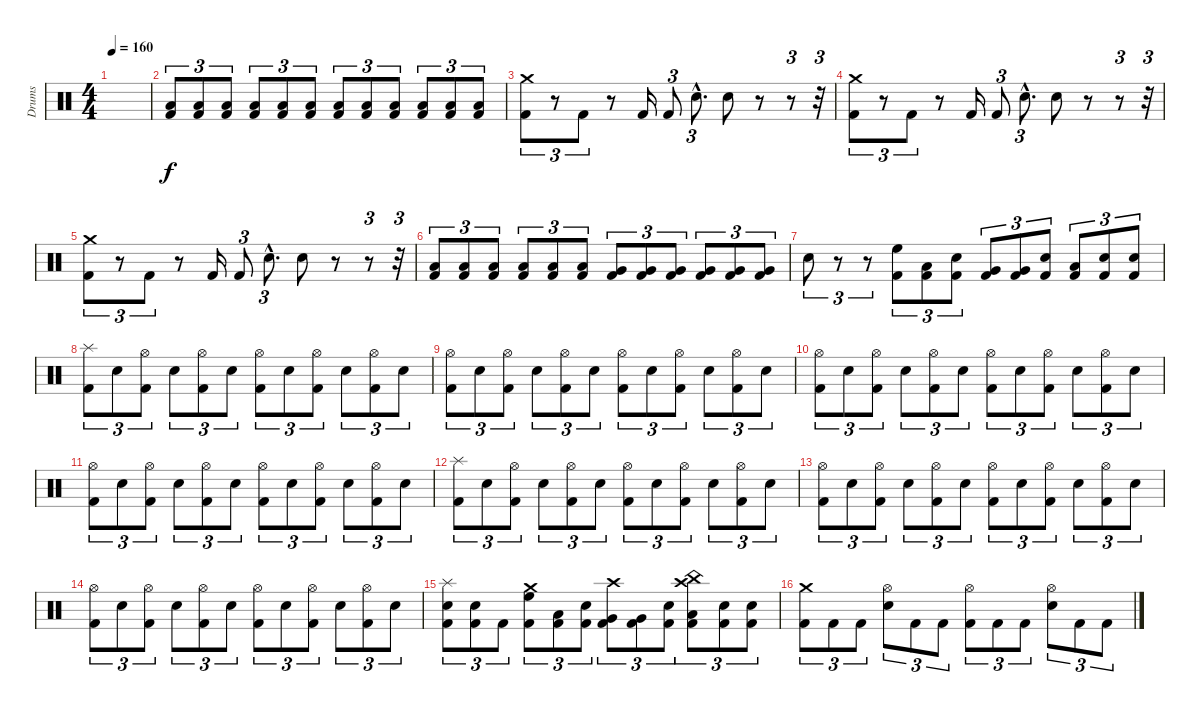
\track ("Drums" "Drums") {instrument percussion}
\staff {score}
\articulation defaults
\ts (4 4)
\tempo 160
\clef neutral
\ks c
|
("Low Tom (hit)" "Kick (hit) 2").8{tu (3 2)} ("Low Tom (hit)" "Kick (hit) 2").8{tu (3 2)} ("Low Tom (hit)" "Kick (hit) 2").8{tu (3 2)} ("Low Tom (hit)" "Kick (hit) 2").8{tu (3 2)} ("Low Tom (hit)" "Kick (hit) 2").8{tu (3 2)} ("Low Tom (hit)" "Kick (hit) 2").8{tu (3 2)} ("Low Tom (hit)" "Kick (hit) 2").8{tu (3 2)} ("Low Tom (hit)" "Kick (hit) 2").8{tu (3 2)} ("Low Tom (hit)" "Kick (hit) 2").8{tu (3 2)} ("Low Tom (hit)" "Kick (hit) 2").8{tu (3 2)} ("Low Tom (hit)" "Kick (hit) 2").8{tu (3 2)} ("Low Tom (hit)" "Kick (hit) 2").8{tu (3 2)} |
("Crash medium (hit)" "Kick (hit) 2").8{tu (3 2)} r.8{tu (3 2)} "Kick (hit) 2".8{tu (3 2)} r.8 "Kick (hit) 2".16 "Kick (hit) 2".8{tu (3 2)} "Electric Snare (hit)"{hac}.8{d tu (3 2)} "Electric Snare (hit)".8 r.8 r.8{tu (3 2)} r.32{tu (3 2)} |
("Crash medium (hit)" "Kick (hit) 2").8{tu (3 2)} r.8{tu (3 2)} "Kick (hit) 2".8{tu (3 2)} r.8 "Kick (hit) 2".16 "Kick (hit) 2".8{tu (3 2)} "Electric Snare (hit)"{hac}.8{d tu (3 2)} "Electric Snare (hit)".8 r.8 r.8{tu (3 2)} r.32{tu (3 2)} |
("Crash medium (hit)" "Kick (hit) 2").8{tu (3 2)} r.8{tu (3 2)} "Kick (hit) 2".8{tu (3 2)} r.8 "Kick (hit) 2".16 "Kick (hit) 2".8{tu (3 2)} "Electric Snare (hit)"{hac}.8{d tu (3 2)} "Electric Snare (hit)".8 r.8 r.8{tu (3 2)} r.32{tu (3 2)} |
("Low Tom (hit)" "Kick (hit) 2").8{tu (3 2)} ("Low Tom (hit)" "Kick (hit) 2").8{tu (3 2)} ("Low Tom (hit)" "Kick (hit) 2").8{tu (3 2)} ("Low Tom (hit)" "Kick (hit) 2").8{tu (3 2)} ("Low Tom (hit)" "Kick (hit) 2").8{tu (3 2)} ("Low Tom (hit)" "Kick (hit) 2").8{tu (3 2)} ("Very Low Tom (hit)" "Kick (hit) 2").8{tu (3 2)} ("Very Low Tom (hit)" "Kick (hit) 2").8{tu (3 2)} ("Very Low Tom (hit)" "Kick (hit) 2").8{tu (3 2)} ("Very Low Tom (hit)" "Kick (hit) 2").8{tu (3 2)} ("Very Low Tom (hit)" "Kick (hit) 2").8{tu (3 2)} ("Very Low Tom (hit)" "Kick (hit) 2").8{tu (3 2)} |
"Electric Snare (hit)".8{tu (3 2)} r.8{tu (3 2)} r.8{tu (3 2)} ("High Floor Tom (hit)" "Kick (hit) 2").8{tu (3 2)} ("Low Tom (hit)" "Kick (hit) 2").8{tu (3 2)} ("Electric Snare (hit)" "Kick (hit) 2").8{tu (3 2)} ("Very Low Tom (hit)" "Kick (hit) 2").8{tu (3 2)} ("Very Low Tom (hit)" "Kick (hit) 2").8{tu (3 2)} ("Electric Snare (hit)" "Kick (hit) 2").8{tu (3 2)} ("Low Floor Tom (hit)" "Kick (hit) 2").8{tu (3 2)} ("Electric Snare (hit)" "Kick (hit) 2").8{tu (3 2)} ("Electric Snare (hit)" "Kick (hit) 2").8{tu (3 2)} |
("Splash (hit)" "Kick (hit) 2").8{tu (3 2)} "Electric Snare (hit)".8{tu (3 2)} ("Hi-Hat (open)" "Kick (hit) 2").8{tu (3 2)} "Electric Snare (hit)".8{tu (3 2)} ("Hi-Hat (open)" "Kick (hit) 2").8{tu (3 2)} "Electric Snare (hit)".8{tu (3 2)} ("Hi-Hat (open)" "Kick (hit) 2").8{tu (3 2)} "Electric Snare (hit)".8{tu (3 2)} ("Hi-Hat (open)" "Kick (hit) 2").8{tu (3 2)} "Electric Snare (hit)".8{tu (3 2)} ("Hi-Hat (open)" "Kick (hit) 2").8{tu (3 2)} "Electric Snare (hit)".8{tu (3 2)} |
("Hi-Hat (open)" "Kick (hit) 2").8{tu (3 2)} "Electric Snare (hit)".8{tu (3 2)} ("Hi-Hat (open)" "Kick (hit) 2").8{tu (3 2)} "Electric Snare (hit)".8{tu (3 2)} ("Hi-Hat (open)" "Kick (hit) 2").8{tu (3 2)} "Electric Snare (hit)".8{tu (3 2)} ("Hi-Hat (open)" "Kick (hit) 2").8{tu (3 2)} "Electric Snare (hit)".8{tu (3 2)} ("Hi-Hat (open)" "Kick (hit) 2").8{tu (3 2)} "Electric Snare (hit)".8{tu (3 2)} ("Hi-Hat (open)" "Kick (hit) 2").8{tu (3 2)} "Electric Snare (hit)".8{tu (3 2)} |
("Hi-Hat (open)" "Kick (hit) 2").8{tu (3 2)} "Electric Snare (hit)".8{tu (3 2)} ("Hi-Hat (open)" "Kick (hit) 2").8{tu (3 2)} "Electric Snare (hit)".8{tu (3 2)} ("Hi-Hat (open)" "Kick (hit) 2").8{tu (3 2)} "Electric Snare (hit)".8{tu (3 2)} ("Hi-Hat (open)" "Kick (hit) 2").8{tu (3 2)} "Electric Snare (hit)".8{tu (3 2)} ("Hi-Hat (open)" "Kick (hit) 2").8{tu (3 2)} "Electric Snare (hit)".8{tu (3 2)} ("Hi-Hat (open)" "Kick (hit) 2").8{tu (3 2)} "Electric Snare (hit)".8{tu (3 2)} |
("Hi-Hat (open)" "Kick (hit) 2").8{tu (3 2)} "Electric Snare (hit)".8{tu (3 2)} ("Hi-Hat (open)" "Kick (hit) 2").8{tu (3 2)} "Electric Snare (hit)".8{tu (3 2)} ("Hi-Hat (open)" "Kick (hit) 2").8{tu (3 2)} "Electric Snare (hit)".8{tu (3 2)} ("Hi-Hat (open)" "Kick (hit) 2").8{tu (3 2)} "Electric Snare (hit)".8{tu (3 2)} ("Hi-Hat (open)" "Kick (hit) 2").8{tu (3 2)} "Electric Snare (hit)".8{tu (3 2)} ("Hi-Hat (open)" "Kick (hit) 2").8{tu (3 2)} "Electric Snare (hit)".8{tu (3 2)} |
("Splash (hit)" "Kick (hit) 2").8{tu (3 2)} "Electric Snare (hit)".8{tu (3 2)} ("Hi-Hat (open)" "Kick (hit) 2").8{tu (3 2)} "Electric Snare (hit)".8{tu (3 2)} ("Hi-Hat (open)" "Kick (hit) 2").8{tu (3 2)} "Electric Snare (hit)".8{tu (3 2)} ("Hi-Hat (open)" "Kick (hit) 2").8{tu (3 2)} "Electric Snare (hit)".8{tu (3 2)} ("Hi-Hat (open)" "Kick (hit) 2").8{tu (3 2)} "Electric Snare (hit)".8{tu (3 2)} ("Hi-Hat (open)" "Kick (hit) 2").8{tu (3 2)} "Electric Snare (hit)".8{tu (3 2)} |
("Hi-Hat (open)" "Kick (hit) 2").8{tu (3 2)} "Electric Snare (hit)".8{tu (3 2)} ("Hi-Hat (open)" "Kick (hit) 2").8{tu (3 2)} "Electric Snare (hit)".8{tu (3 2)} ("Hi-Hat (open)" "Kick (hit) 2").8{tu (3 2)} "Electric Snare (hit)".8{tu (3 2)} ("Hi-Hat (open)" "Kick (hit) 2").8{tu (3 2)} "Electric Snare (hit)".8{tu (3 2)} ("Hi-Hat (open)" "Kick (hit) 2").8{tu (3 2)} "Electric Snare (hit)".8{tu (3 2)} ("Hi-Hat (open)" "Kick (hit) 2").8{tu (3 2)} "Electric Snare (hit)".8{tu (3 2)} |
("Hi-Hat (open)" "Kick (hit) 2").8{tu (3 2)} "Electric Snare (hit)".8{tu (3 2)} ("Hi-Hat (open)" "Kick (hit) 2").8{tu (3 2)} "Electric Snare (hit)".8{tu (3 2)} ("Hi-Hat (open)" "Kick (hit) 2").8{tu (3 2)} "Electric Snare (hit)".8{tu (3 2)} ("Hi-Hat (open)" "Kick (hit) 2").8{tu (3 2)} "Electric Snare (hit)".8{tu (3 2)} ("Hi-Hat (open)" "Kick (hit) 2").8{tu (3 2)} "Electric Snare (hit)".8{tu (3 2)} ("Hi-Hat (open)" "Kick (hit) 2").8{tu (3 2)} "Electric Snare (hit)".8{tu (3 2)} |
("Splash (hit)" "Electric Snare (hit)" "Kick (hit) 2").8{tu (3 2)} ("Electric Snare (hit)" "Kick (hit) 2").8{tu (3 2)} "Kick (hit) 2".8{tu (3 2)} ("Crash medium (hit)" "High Floor Tom (hit)" "Kick (hit) 2").8{tu (3 2)} ("Low Tom (hit)" "Kick (hit) 2").8{tu (3 2)} ("Electric Snare (hit)" "Kick (hit) 2").8{tu (3 2)} ("Crash high (hit)" "Very Low Tom (hit)" "Kick (hit) 2").8{tu (3 2)} ("Very Low Tom (hit)" "Kick (hit) 2").8{tu (3 2)} ("Electric Snare (hit)" "Kick (hit) 2").8{tu (3 2)} ("Crash high (hit)" "China (hit)" "Low Floor Tom (hit)" "Kick (hit) 2").8{tu (3 2)} ("Electric Snare (hit)" "Kick (hit) 2").8{tu (3 2)} ("Electric Snare (hit)" "Kick (hit) 2").8{tu (3 2)} |
("Crash medium (hit)" "Kick (hit) 2").8{tu (3 2)} "Kick (hit) 2".8{tu (3 2)} "Kick (hit) 2".8{tu (3 2)} ("Hi-Hat (open)" "Electric Snare (hit)").8{tu (3 2)} "Kick (hit) 2".8{tu (3 2)} "Kick (hit) 2".8{tu (3 2)} ("Hi-Hat (open)" "Kick (hit) 2").8{tu (3 2)} "Kick (hit) 2".8{tu (3 2)} "Kick (hit) 2".8{tu (3 2)} ("Hi-Hat (open)" "Electric Snare (hit)").8{tu (3 2)} "Kick (hit) 2".8{tu (3 2)} "Kick (hit) 2".8{tu (3 2)}
